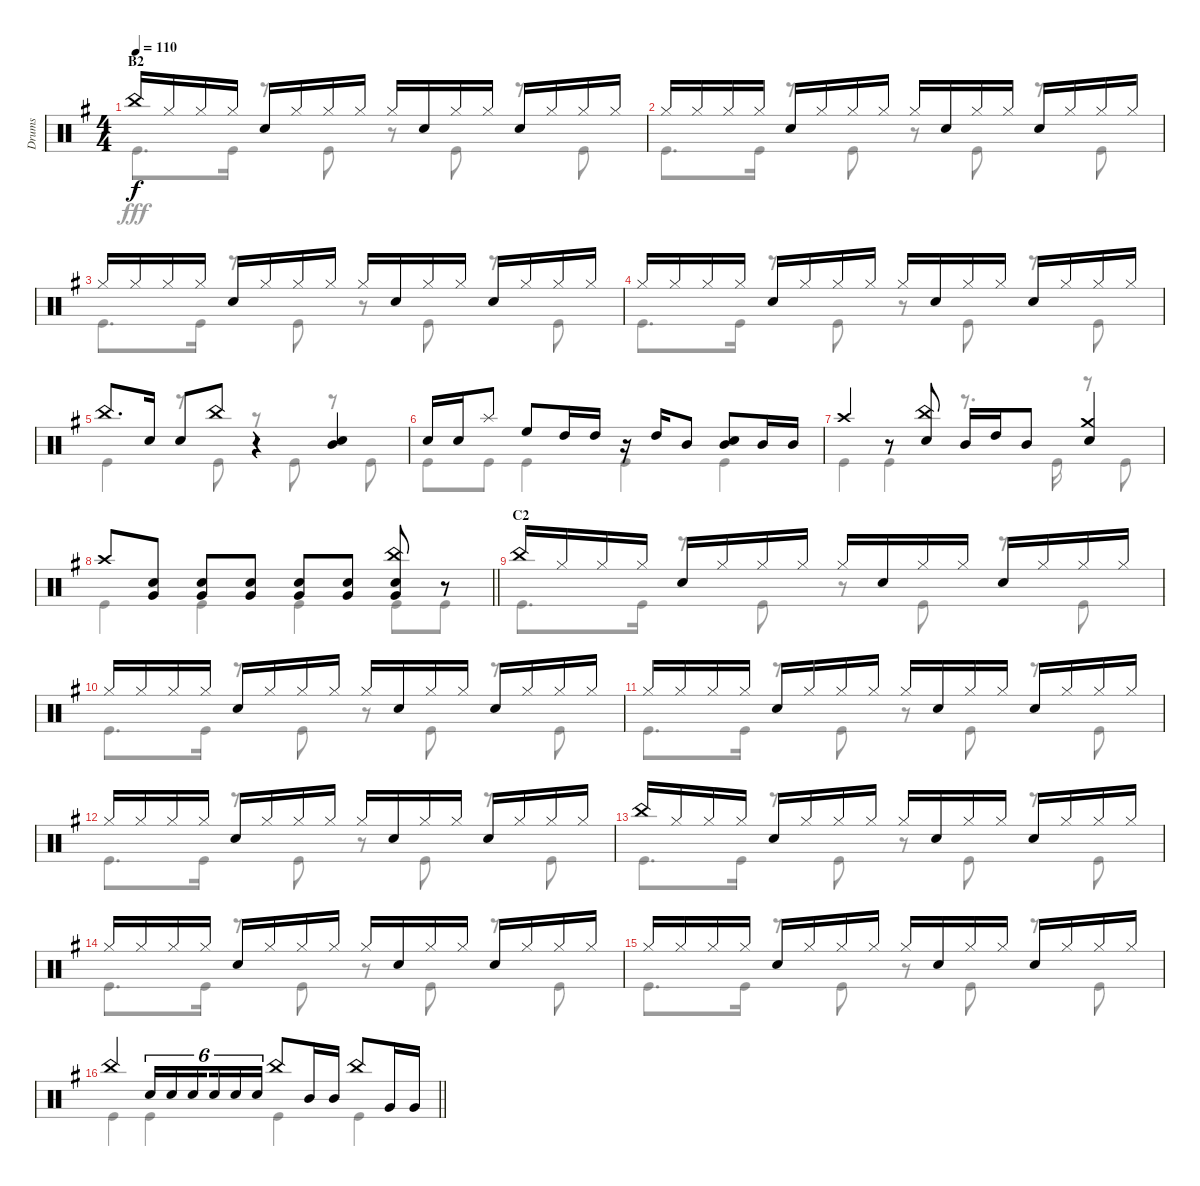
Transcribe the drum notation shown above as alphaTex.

\track ("Drums" "Drums") {instrument percussion}
\staff {score}
\articulation defaults
\voice
\ts (4 4)
\section ("" "B2")
\tempo 110
\clef neutral
\ks g "China (hit)".16{dy f} "Hi-Hat (closed)".16 "Hi-Hat (closed)".16 "Hi-Hat (closed)".16 "Snare (hit) 2".16 "Hi-Hat (closed)".16 "Hi-Hat (closed)".16 "Hi-Hat (closed)".16 "Hi-Hat (closed)".16 "Snare (hit) 2".16 "Hi-Hat (closed)".16 "Hi-Hat (closed)".16 "Snare (hit) 2".16 "Hi-Hat (closed)".16 "Hi-Hat (closed)".16 "Hi-Hat (closed)".16
|
"Hi-Hat (closed)".16 "Hi-Hat (closed)".16 "Hi-Hat (closed)".16 "Hi-Hat (closed)".16 "Snare (hit) 2".16 "Hi-Hat (closed)".16 "Hi-Hat (closed)".16 "Hi-Hat (closed)".16 "Hi-Hat (closed)".16 "Snare (hit) 2".16 "Hi-Hat (closed)".16 "Hi-Hat (closed)".16 "Snare (hit) 2".16 "Hi-Hat (closed)".16 "Hi-Hat (closed)".16 "Hi-Hat (closed)".16 |
"Hi-Hat (closed)".16 "Hi-Hat (closed)".16 "Hi-Hat (closed)".16 "Hi-Hat (closed)".16 "Snare (hit) 2".16 "Hi-Hat (closed)".16 "Hi-Hat (closed)".16 "Hi-Hat (closed)".16 "Hi-Hat (closed)".16 "Snare (hit) 2".16 "Hi-Hat (closed)".16 "Hi-Hat (closed)".16 "Snare (hit) 2".16 "Hi-Hat (closed)".16 "Hi-Hat (closed)".16 "Hi-Hat (closed)".16 |
"Hi-Hat (closed)".16 "Hi-Hat (closed)".16 "Hi-Hat (closed)".16 "Hi-Hat (closed)".16 "Snare (hit) 2".16 "Hi-Hat (closed)".16 "Hi-Hat (closed)".16 "Hi-Hat (closed)".16 "Hi-Hat (closed)".16 "Snare (hit) 2".16 "Hi-Hat (closed)".16 "Hi-Hat (closed)".16 "Snare (hit) 2".16 "Hi-Hat (closed)".16 "Hi-Hat (closed)".16 "Hi-Hat (closed)".16 |
"China (hit)".8{d} "Snare (hit) 2".16 "Snare (hit) 2".8 "China (hit)".8 r.4 ("Mid Tom (hit)" "Snare (hit) 2").4 |
"Snare (hit) 2".16 "Snare (hit) 2".16 "Splash (hit)".8 "High Floor Tom (hit)".8 "High Tom (hit)".16 "High Tom (hit)".16 r.16 "High Tom (hit)".16 "Mid Tom (hit)".8 ("Mid Tom (hit)" "Snare (hit) 2").8 "Mid Tom (hit)".16 "Mid Tom (hit)".16 |
"Crash high (hit)".4 r.8 ("China (hit)" "Snare (hit) 2").8 "Mid Tom (hit)".16 "High Tom (hit)".16 "Mid Tom (hit)".8 ("Crash medium (hit)" "Snare (hit) 2").4 |
\barLineRight lightlight "Crash high (hit)".8
("Snare (hit) 2" "Very Low Tom (hit)").8 ("Snare (hit) 2" "Very Low Tom (hit)").8 ("Snare (hit) 2" "Very Low Tom (hit)").8 ("Snare (hit) 2" "Very Low Tom (hit)").8 ("Snare (hit) 2" "Very Low Tom (hit)").8 ("Snare (hit) 2" "Very Low Tom (hit)" "China (hit)").8 r.8 |
\section ("" "C2")
"China (hit)".16 "Hi-Hat (closed)".16 "Hi-Hat (closed)".16 "Hi-Hat (closed)".16 "Snare (hit) 2".16 "Hi-Hat (closed)".16 "Hi-Hat (closed)".16 "Hi-Hat (closed)".16 "Hi-Hat (closed)".16 "Snare (hit) 2".16 "Hi-Hat (closed)".16 "Hi-Hat (closed)".16 "Snare (hit) 2".16 "Hi-Hat (closed)".16 "Hi-Hat (closed)".16 "Hi-Hat (closed)".16 |
"Hi-Hat (closed)".16 "Hi-Hat (closed)".16 "Hi-Hat (closed)".16 "Hi-Hat (closed)".16 "Snare (hit) 2".16 "Hi-Hat (closed)".16 "Hi-Hat (closed)".16 "Hi-Hat (closed)".16 "Hi-Hat (closed)".16 "Snare (hit) 2".16 "Hi-Hat (closed)".16 "Hi-Hat (closed)".16 "Snare (hit) 2".16 "Hi-Hat (closed)".16 "Hi-Hat (closed)".16 "Hi-Hat (closed)".16 |
"Hi-Hat (closed)".16 "Hi-Hat (closed)".16 "Hi-Hat (closed)".16 "Hi-Hat (closed)".16 "Snare (hit) 2".16 "Hi-Hat (closed)".16 "Hi-Hat (closed)".16 "Hi-Hat (closed)".16 "Hi-Hat (closed)".16 "Snare (hit) 2".16 "Hi-Hat (closed)".16 "Hi-Hat (closed)".16 "Snare (hit) 2".16 "Hi-Hat (closed)".16 "Hi-Hat (closed)".16 "Hi-Hat (closed)".16 |
"Hi-Hat (closed)".16 "Hi-Hat (closed)".16 "Hi-Hat (closed)".16 "Hi-Hat (closed)".16 "Snare (hit) 2".16 "Hi-Hat (closed)".16 "Hi-Hat (closed)".16 "Hi-Hat (closed)".16 "Hi-Hat (closed)".16 "Snare (hit) 2".16 "Hi-Hat (closed)".16 "Hi-Hat (closed)".16 "Snare (hit) 2".16 "Hi-Hat (closed)".16 "Hi-Hat (closed)".16 "Hi-Hat (closed)".16 |
"China (hit)".16 "Hi-Hat (closed)".16 "Hi-Hat (closed)".16 "Hi-Hat (closed)".16 "Snare (hit) 2".16 "Hi-Hat (closed)".16 "Hi-Hat (closed)".16 "Hi-Hat (closed)".16 "Hi-Hat (closed)".16 "Snare (hit) 2".16 "Hi-Hat (closed)".16 "Hi-Hat (closed)".16 "Snare (hit) 2".16 "Hi-Hat (closed)".16 "Hi-Hat (closed)".16 "Hi-Hat (closed)".16 |
"Hi-Hat (closed)".16 "Hi-Hat (closed)".16 "Hi-Hat (closed)".16 "Hi-Hat (closed)".16 "Snare (hit) 2".16 "Hi-Hat (closed)".16 "Hi-Hat (closed)".16 "Hi-Hat (closed)".16 "Hi-Hat (closed)".16 "Snare (hit) 2".16 "Hi-Hat (closed)".16 "Hi-Hat (closed)".16 "Snare (hit) 2".16 "Hi-Hat (closed)".16 "Hi-Hat (closed)".16 "Hi-Hat (closed)".16 |
"Hi-Hat (closed)".16 "Hi-Hat (closed)".16 "Hi-Hat (closed)".16 "Hi-Hat (closed)".16 "Snare (hit) 2".16 "Hi-Hat (closed)".16 "Hi-Hat (closed)".16 "Hi-Hat (closed)".16 "Hi-Hat (closed)".16 "Snare (hit) 2".16 "Hi-Hat (closed)".16 "Hi-Hat (closed)".16 "Snare (hit) 2".16 "Hi-Hat (closed)".16 "Hi-Hat (closed)".16 "Hi-Hat (closed)".16 |
\barLineRight lightlight "China (hit)".4 "Snare (hit) 2".16{tu (6 4)} "Snare (hit) 2".16{tu (6 4)} "Snare (hit) 2".16{tu (6 4) beam splitsecondary} "Snare (hit) 2".16{tu (6 4)} "Snare (hit) 2".16{tu (6 4)} "Snare (hit) 2".16{tu (6 4)} "China (hit)".8 "Mid Tom (hit)".16 "Mid Tom (hit)".16 "China (hit)".8 "Very Low Tom (hit)".16 "Very Low Tom (hit)".16
\voice
\clef neutral
\ottava regular
\simile none
\ks g "Kick (hit)".8{d dy fff} "Kick (hit)".16
r.8 "Kick (hit)".8 r.8 "Kick (hit)".8 r.8 "Kick (hit)".8 |
"Kick (hit)".8{d} "Kick (hit)".16 r.8 "Kick (hit)".8 r.8 "Kick (hit)".8 r.8 "Kick (hit)".8 |
"Kick (hit)".8{d} "Kick (hit)".16 r.8 "Kick (hit)".8 r.8 "Kick (hit)".8 r.8 "Kick (hit)".8 |
"Kick (hit)".8{d} "Kick (hit)".16 r.8 "Kick (hit)".8 r.8 "Kick (hit)".8 r.8 "Kick (hit)".8 |
"Kick (hit)".4 r.8 "Kick (hit)".8 r.8 "Kick (hit)".8 r.8 "Kick (hit)".8 |
"Kick (hit)".8 "Kick (hit)".8 "Kick (hit)".4 "Kick (hit)".4 "Kick (hit)".4 |
"Kick (hit)".4 "Kick (hit)".4 r.8{d} "Kick (hit)".16 r.8 "Kick (hit)".8 |
\barLineRight lightlight "Kick (hit)".4 "Kick (hit)".4 "Kick (hit)".4 "Kick (hit)".8 "Kick (hit)".8
|
"Kick (hit)".8{d} "Kick (hit)".16 r.8 "Kick (hit)".8 r.8 "Kick (hit)".8 r.8 "Kick (hit)".8 |
"Kick (hit)".8{d} "Kick (hit)".16 r.8 "Kick (hit)".8 r.8 "Kick (hit)".8 r.8 "Kick (hit)".8 |
"Kick (hit)".8{d} "Kick (hit)".16 r.8 "Kick (hit)".8 r.8 "Kick (hit)".8 r.8 "Kick (hit)".8 |
"Kick (hit)".8{d} "Kick (hit)".16 r.8 "Kick (hit)".8 r.8 "Kick (hit)".8 r.8 "Kick (hit)".8 |
"Kick (hit)".8{d} "Kick (hit)".16 r.8 "Kick (hit)".8 r.8 "Kick (hit)".8 r.8 "Kick (hit)".8 |
"Kick (hit)".8{d} "Kick (hit)".16 r.8 "Kick (hit)".8 r.8 "Kick (hit)".8 r.8 "Kick (hit)".8 |
"Kick (hit)".8{d} "Kick (hit)".16 r.8 "Kick (hit)".8 r.8 "Kick (hit)".8 r.8 "Kick (hit)".8 |
\barLineRight lightlight "Kick (hit)".4 "Kick (hit)".4 "Kick (hit)".4 "Kick (hit)".4
